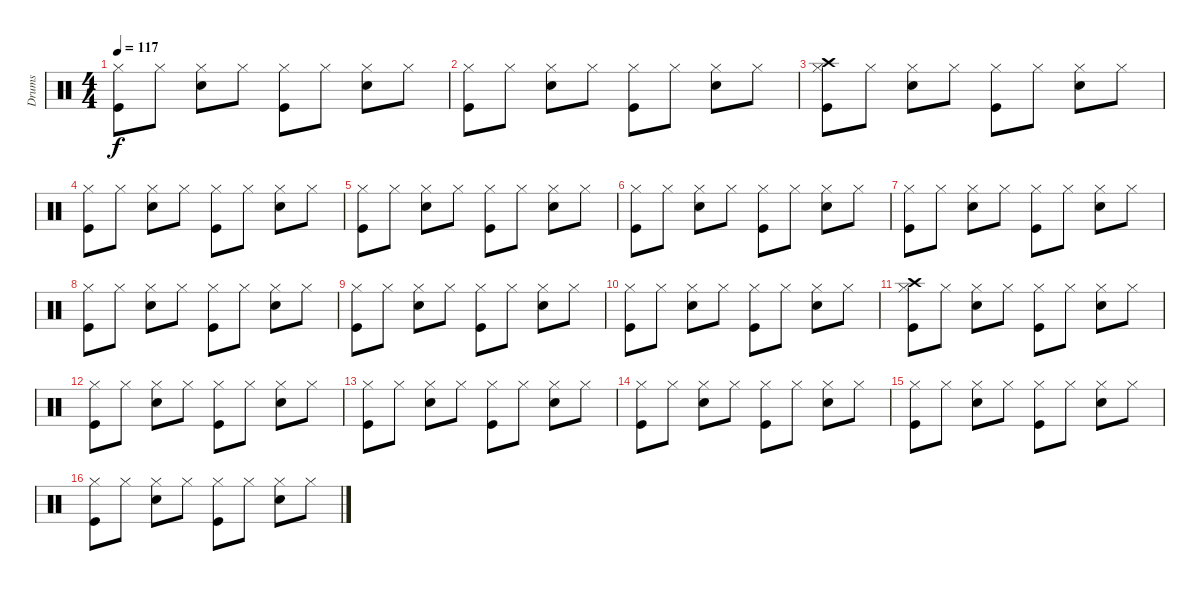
\track ("Drums" "Drums") {instrument percussion}
\staff {score}
\articulation defaults
\ts (4 4)
\tempo 117
\clef neutral
\ks c
("Kick (hit)" "Hi-Hat (closed)").8{dy f} "Hi-Hat (closed)".8 ("Hi-Hat (closed)" "Snare (hit) 2").8 "Hi-Hat (closed)".8 ("Kick (hit)" "Hi-Hat (closed)").8 "Hi-Hat (closed)".8 ("Hi-Hat (closed)" "Snare (hit) 2").8 "Hi-Hat (closed)".8 |
("Kick (hit)" "Hi-Hat (closed)").8 "Hi-Hat (closed)".8 ("Hi-Hat (closed)" "Snare (hit) 2").8 "Hi-Hat (closed)".8 ("Kick (hit)" "Hi-Hat (closed)").8 "Hi-Hat (closed)".8 ("Hi-Hat (closed)" "Snare (hit) 2").8 "Hi-Hat (closed)".8 |
("Kick (hit)" "Hi-Hat (closed)" "Crash high (hit)").8 "Hi-Hat (closed)".8 ("Hi-Hat (closed)" "Snare (hit) 2").8 "Hi-Hat (closed)".8 ("Kick (hit)" "Hi-Hat (closed)").8 "Hi-Hat (closed)".8 ("Hi-Hat (closed)" "Snare (hit) 2").8 "Hi-Hat (closed)".8 |
("Kick (hit)" "Hi-Hat (closed)").8 "Hi-Hat (closed)".8 ("Hi-Hat (closed)" "Snare (hit) 2").8 "Hi-Hat (closed)".8 ("Kick (hit)" "Hi-Hat (closed)").8 "Hi-Hat (closed)".8 ("Hi-Hat (closed)" "Snare (hit) 2").8 "Hi-Hat (closed)".8 |
("Kick (hit)" "Hi-Hat (closed)").8 "Hi-Hat (closed)".8 ("Hi-Hat (closed)" "Snare (hit) 2").8 "Hi-Hat (closed)".8 ("Kick (hit)" "Hi-Hat (closed)").8 "Hi-Hat (closed)".8 ("Hi-Hat (closed)" "Snare (hit) 2").8 "Hi-Hat (closed)".8 |
("Kick (hit)" "Hi-Hat (closed)").8 "Hi-Hat (closed)".8 ("Hi-Hat (closed)" "Snare (hit) 2").8 "Hi-Hat (closed)".8 ("Kick (hit)" "Hi-Hat (closed)").8 "Hi-Hat (closed)".8 ("Hi-Hat (closed)" "Snare (hit) 2").8 "Hi-Hat (closed)".8 |
("Kick (hit)" "Hi-Hat (closed)").8 "Hi-Hat (closed)".8 ("Hi-Hat (closed)" "Snare (hit) 2").8 "Hi-Hat (closed)".8 ("Kick (hit)" "Hi-Hat (closed)").8 "Hi-Hat (closed)".8 ("Hi-Hat (closed)" "Snare (hit) 2").8 "Hi-Hat (closed)".8 |
("Kick (hit)" "Hi-Hat (closed)").8 "Hi-Hat (closed)".8 ("Hi-Hat (closed)" "Snare (hit) 2").8 "Hi-Hat (closed)".8 ("Kick (hit)" "Hi-Hat (closed)").8 "Hi-Hat (closed)".8 ("Hi-Hat (closed)" "Snare (hit) 2").8 "Hi-Hat (closed)".8 |
("Kick (hit)" "Hi-Hat (closed)").8 "Hi-Hat (closed)".8 ("Hi-Hat (closed)" "Snare (hit) 2").8 "Hi-Hat (closed)".8 ("Kick (hit)" "Hi-Hat (closed)").8 "Hi-Hat (closed)".8 ("Hi-Hat (closed)" "Snare (hit) 2").8 "Hi-Hat (closed)".8 |
("Kick (hit)" "Hi-Hat (closed)").8 "Hi-Hat (closed)".8 ("Hi-Hat (closed)" "Snare (hit) 2").8 "Hi-Hat (closed)".8 ("Kick (hit)" "Hi-Hat (closed)").8 "Hi-Hat (closed)".8 ("Hi-Hat (closed)" "Snare (hit) 2").8 "Hi-Hat (closed)".8 |
("Kick (hit)" "Hi-Hat (closed)" "Crash high (hit)").8 "Hi-Hat (closed)".8 ("Hi-Hat (closed)" "Snare (hit) 2").8 "Hi-Hat (closed)".8 ("Kick (hit)" "Hi-Hat (closed)").8 "Hi-Hat (closed)".8 ("Hi-Hat (closed)" "Snare (hit) 2").8 "Hi-Hat (closed)".8 |
("Kick (hit)" "Hi-Hat (closed)").8 "Hi-Hat (closed)".8 ("Hi-Hat (closed)" "Snare (hit) 2").8 "Hi-Hat (closed)".8 ("Kick (hit)" "Hi-Hat (closed)").8 "Hi-Hat (closed)".8 ("Hi-Hat (closed)" "Snare (hit) 2").8 "Hi-Hat (closed)".8 |
("Kick (hit)" "Hi-Hat (closed)").8 "Hi-Hat (closed)".8 ("Hi-Hat (closed)" "Snare (hit) 2").8 "Hi-Hat (closed)".8 ("Kick (hit)" "Hi-Hat (closed)").8 "Hi-Hat (closed)".8 ("Hi-Hat (closed)" "Snare (hit) 2").8 "Hi-Hat (closed)".8 |
("Kick (hit)" "Hi-Hat (closed)").8 "Hi-Hat (closed)".8 ("Hi-Hat (closed)" "Snare (hit) 2").8 "Hi-Hat (closed)".8 ("Kick (hit)" "Hi-Hat (closed)").8 "Hi-Hat (closed)".8 ("Hi-Hat (closed)" "Snare (hit) 2").8 "Hi-Hat (closed)".8 |
("Kick (hit)" "Hi-Hat (closed)").8 "Hi-Hat (closed)".8 ("Hi-Hat (closed)" "Snare (hit) 2").8 "Hi-Hat (closed)".8 ("Kick (hit)" "Hi-Hat (closed)").8 "Hi-Hat (closed)".8 ("Hi-Hat (closed)" "Snare (hit) 2").8 "Hi-Hat (closed)".8 |
("Kick (hit)" "Hi-Hat (closed)").8 "Hi-Hat (closed)".8 ("Hi-Hat (closed)" "Snare (hit) 2").8 "Hi-Hat (closed)".8 ("Kick (hit)" "Hi-Hat (closed)").8 "Hi-Hat (closed)".8 ("Hi-Hat (closed)" "Snare (hit) 2").8 "Hi-Hat (closed)".8
